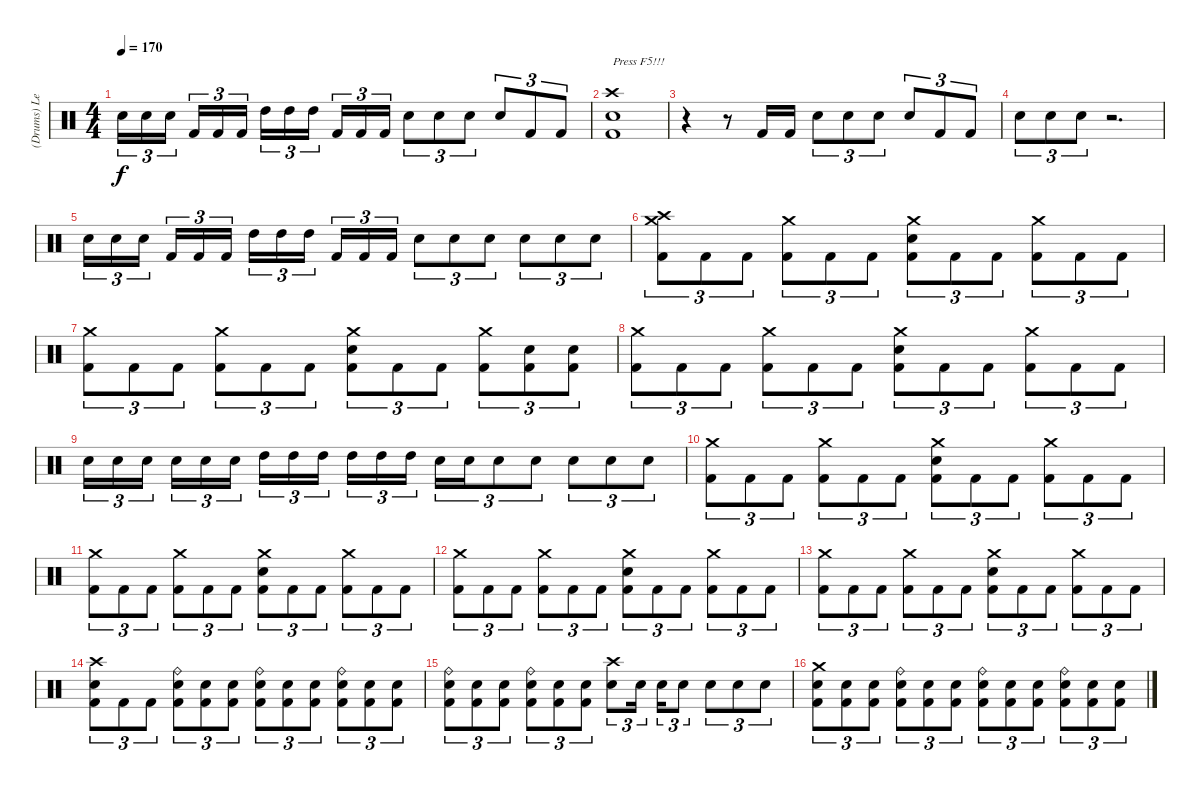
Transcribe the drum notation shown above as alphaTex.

\track ("(Drums) Leche" "(Drums) Le") {instrument percussion}
\staff {score}
\articulation defaults
\ts (4 4)
\tempo 170
\clef neutral
\ks c "Electric Snare (hit)".16{tu (3 2) dy f} "Electric Snare (hit)".16{tu (3 2)} "Electric Snare (hit)".16{tu (3 2) beam splitsecondary} "Kick (hit) 2".16{tu (3 2)} "Kick (hit) 2".16{tu (3 2)} "Kick (hit) 2".16{tu (3 2)} "High Tom (hit)".16{tu (3 2)} "High Tom (hit)".16{tu (3 2)} "High Tom (hit)".16{tu (3 2) beam splitsecondary} "Kick (hit) 2".16{tu (3 2)} "Kick (hit) 2".16{tu (3 2)} "Kick (hit) 2".16{tu (3 2)} "Electric Snare (hit)".8{tu (3 2)} "Electric Snare (hit)".8{tu (3 2)} "Electric Snare (hit)".8{tu (3 2)} "Electric Snare (hit)".8{tu (3 2)} "Kick (hit) 2".8{tu (3 2)} "Kick (hit) 2".8{tu (3 2)}
|
("Crash high (hit)" "Electric Snare (hit)" "Kick (hit) 2").1{txt "Press F5!!!"} |
r.4 r.8 "Kick (hit) 2".16 "Kick (hit) 2".16 "Electric Snare (hit)".8{tu (3 2)} "Electric Snare (hit)".8{tu (3 2)} "Electric Snare (hit)".8{tu (3 2)} "Electric Snare (hit)".8{tu (3 2)} "Kick (hit) 2".8{tu (3 2)} "Kick (hit) 2".8{tu (3 2)} |
"Electric Snare (hit)".8{tu (3 2)} "Electric Snare (hit)".8{tu (3 2)} "Electric Snare (hit)".8{tu (3 2)} r.2{d} |
"Electric Snare (hit)".16{tu (3 2)} "Electric Snare (hit)".16{tu (3 2)} "Electric Snare (hit)".16{tu (3 2) beam splitsecondary} "Kick (hit) 2".16{tu (3 2)} "Kick (hit) 2".16{tu (3 2)} "Kick (hit) 2".16{tu (3 2)} "High Tom (hit)".16{tu (3 2)} "High Tom (hit)".16{tu (3 2)} "High Tom (hit)".16{tu (3 2) beam splitsecondary} "Kick (hit) 2".16{tu (3 2)} "Kick (hit) 2".16{tu (3 2)} "Kick (hit) 2".16{tu (3 2)} "Electric Snare (hit)".8{tu (3 2)} "Electric Snare (hit)".8{tu (3 2)} "Electric Snare (hit)".8{tu (3 2)} "Electric Snare (hit)".8{tu (3 2)} "Electric Snare (hit)".8{tu (3 2)} "Electric Snare (hit)".8{tu (3 2)} |
("Crash high (hit)" "Crash medium (hit)" "Kick (hit) 2").8{tu (3 2)} "Kick (hit) 2".8{tu (3 2)} "Kick (hit) 2".8{tu (3 2)} ("Crash medium (hit)" "Kick (hit) 2").8{tu (3 2)} "Kick (hit) 2".8{tu (3 2)} "Kick (hit) 2".8{tu (3 2)} ("Crash medium (hit)" "Electric Snare (hit)" "Kick (hit) 2").8{tu (3 2)} "Kick (hit) 2".8{tu (3 2)} "Kick (hit) 2".8{tu (3 2)} ("Crash medium (hit)" "Kick (hit) 2").8{tu (3 2)} "Kick (hit) 2".8{tu (3 2)} "Kick (hit) 2".8{tu (3 2)} |
("Crash medium (hit)" "Kick (hit) 2").8{tu (3 2)} "Kick (hit) 2".8{tu (3 2)} "Kick (hit) 2".8{tu (3 2)} ("Crash medium (hit)" "Kick (hit) 2").8{tu (3 2)} "Kick (hit) 2".8{tu (3 2)} "Kick (hit) 2".8{tu (3 2)} ("Crash medium (hit)" "Electric Snare (hit)" "Kick (hit) 2").8{tu (3 2)} "Kick (hit) 2".8{tu (3 2)} "Kick (hit) 2".8{tu (3 2)} ("Crash medium (hit)" "Kick (hit) 2").8{tu (3 2)} ("Electric Snare (hit)" "Kick (hit) 2").8{tu (3 2)} ("Electric Snare (hit)" "Kick (hit) 2").8{tu (3 2)} |
("Crash medium (hit)" "Kick (hit) 2").8{tu (3 2)} "Kick (hit) 2".8{tu (3 2)} "Kick (hit) 2".8{tu (3 2)} ("Crash medium (hit)" "Kick (hit) 2").8{tu (3 2)} "Kick (hit) 2".8{tu (3 2)} "Kick (hit) 2".8{tu (3 2)} ("Crash medium (hit)" "Electric Snare (hit)" "Kick (hit) 2").8{tu (3 2)} "Kick (hit) 2".8{tu (3 2)} "Kick (hit) 2".8{tu (3 2)} ("Crash medium (hit)" "Kick (hit) 2").8{tu (3 2)} "Kick (hit) 2".8{tu (3 2)} "Kick (hit) 2".8{tu (3 2)} |
"Electric Snare (hit)".16{tu (3 2)} "Electric Snare (hit)".16{tu (3 2)} "Electric Snare (hit)".16{tu (3 2) beam splitsecondary} "Electric Snare (hit)".16{tu (3 2)} "Electric Snare (hit)".16{tu (3 2)} "Electric Snare (hit)".16{tu (3 2)} "High Tom (hit)".16{tu (3 2)} "High Tom (hit)".16{tu (3 2)} "High Tom (hit)".16{tu (3 2) beam splitsecondary} "High Tom (hit)".16{tu (3 2)} "High Tom (hit)".16{tu (3 2)} "High Tom (hit)".16{tu (3 2)} "Electric Snare (hit)".16{tu (3 2)} "Electric Snare (hit)".16{tu (3 2)} "Electric Snare (hit)".8{tu (3 2)} "Electric Snare (hit)".8{tu (3 2)} "Electric Snare (hit)".8{tu (3 2)} "Electric Snare (hit)".8{tu (3 2)} "Electric Snare (hit)".8{tu (3 2)} |
("Crash medium (hit)" "Kick (hit) 2").8{tu (3 2)} "Kick (hit) 2".8{tu (3 2)} "Kick (hit) 2".8{tu (3 2)} ("Crash medium (hit)" "Kick (hit) 2").8{tu (3 2)} "Kick (hit) 2".8{tu (3 2)} "Kick (hit) 2".8{tu (3 2)} ("Crash medium (hit)" "Electric Snare (hit)" "Kick (hit) 2").8{tu (3 2)} "Kick (hit) 2".8{tu (3 2)} "Kick (hit) 2".8{tu (3 2)} ("Crash medium (hit)" "Kick (hit) 2").8{tu (3 2)} "Kick (hit) 2".8{tu (3 2)} "Kick (hit) 2".8{tu (3 2)} |
("Crash medium (hit)" "Kick (hit) 2").8{tu (3 2)} "Kick (hit) 2".8{tu (3 2)} "Kick (hit) 2".8{tu (3 2)} ("Crash medium (hit)" "Kick (hit) 2").8{tu (3 2)} "Kick (hit) 2".8{tu (3 2)} "Kick (hit) 2".8{tu (3 2)} ("Crash medium (hit)" "Electric Snare (hit)" "Kick (hit) 2").8{tu (3 2)} "Kick (hit) 2".8{tu (3 2)} "Kick (hit) 2".8{tu (3 2)} ("Crash medium (hit)" "Kick (hit) 2").8{tu (3 2)} "Kick (hit) 2".8{tu (3 2)} "Kick (hit) 2".8{tu (3 2)} |
("Crash medium (hit)" "Kick (hit) 2").8{tu (3 2)} "Kick (hit) 2".8{tu (3 2)} "Kick (hit) 2".8{tu (3 2)} ("Crash medium (hit)" "Kick (hit) 2").8{tu (3 2)} "Kick (hit) 2".8{tu (3 2)} "Kick (hit) 2".8{tu (3 2)} ("Crash medium (hit)" "Electric Snare (hit)" "Kick (hit) 2").8{tu (3 2)} "Kick (hit) 2".8{tu (3 2)} "Kick (hit) 2".8{tu (3 2)} ("Crash medium (hit)" "Kick (hit) 2").8{tu (3 2)} "Kick (hit) 2".8{tu (3 2)} "Kick (hit) 2".8{tu (3 2)} |
("Crash medium (hit)" "Kick (hit) 2").8{tu (3 2)} "Kick (hit) 2".8{tu (3 2)} "Kick (hit) 2".8{tu (3 2)} ("Crash medium (hit)" "Kick (hit) 2").8{tu (3 2)} "Kick (hit) 2".8{tu (3 2)} "Kick (hit) 2".8{tu (3 2)} ("Crash medium (hit)" "Electric Snare (hit)" "Kick (hit) 2").8{tu (3 2)} "Kick (hit) 2".8{tu (3 2)} "Kick (hit) 2".8{tu (3 2)} ("Crash medium (hit)" "Kick (hit) 2").8{tu (3 2)} "Kick (hit) 2".8{tu (3 2)} "Kick (hit) 2".8{tu (3 2)} |
("Crash high (hit)" "Electric Snare (hit)" "Kick (hit) 2").8{tu (3 2)} "Kick (hit) 2".8{tu (3 2)} "Kick (hit) 2".8{tu (3 2)} ("Ride (bell)" "Electric Snare (hit)" "Kick (hit) 2").8{tu (3 2)} ("Electric Snare (hit)" "Kick (hit) 2").8{tu (3 2)} ("Electric Snare (hit)" "Kick (hit) 2").8{tu (3 2)} ("Ride (bell)" "Electric Snare (hit)" "Kick (hit) 2").8{tu (3 2)} ("Electric Snare (hit)" "Kick (hit) 2").8{tu (3 2)} ("Electric Snare (hit)" "Kick (hit) 2").8{tu (3 2)} ("Ride (bell)" "Electric Snare (hit)" "Kick (hit) 2").8{tu (3 2)} ("Electric Snare (hit)" "Kick (hit) 2").8{tu (3 2)} ("Electric Snare (hit)" "Kick (hit) 2").8{tu (3 2)} |
("Ride (bell)" "Electric Snare (hit)" "Kick (hit) 2").8{tu (3 2)} ("Electric Snare (hit)" "Kick (hit) 2").8{tu (3 2)} ("Electric Snare (hit)" "Kick (hit) 2").8{tu (3 2)} ("Ride (bell)" "Electric Snare (hit)" "Kick (hit) 2").8{tu (3 2)} ("Electric Snare (hit)" "Kick (hit) 2").8{tu (3 2)} ("Electric Snare (hit)" "Kick (hit) 2").8{tu (3 2)} ("Crash high (hit)" "Electric Snare (hit)").8{tu (3 2)} "Electric Snare (hit)".16{tu (3 2) beam splitsecondary} "Electric Snare (hit)".16{tu (3 2)} "Electric Snare (hit)".8{tu (3 2)} "Electric Snare (hit)".8{tu (3 2)} "Electric Snare (hit)".8{tu (3 2)} "Electric Snare (hit)".8{tu (3 2)} |
("Crash medium (hit)" "Electric Snare (hit)" "Kick (hit) 2").8{tu (3 2)} ("Electric Snare (hit)" "Kick (hit) 2").8{tu (3 2)} ("Electric Snare (hit)" "Kick (hit) 2").8{tu (3 2)} ("Ride (bell)" "Electric Snare (hit)" "Kick (hit) 2").8{tu (3 2)} ("Electric Snare (hit)" "Kick (hit) 2").8{tu (3 2)} ("Electric Snare (hit)" "Kick (hit) 2").8{tu (3 2)} ("Ride (bell)" "Electric Snare (hit)" "Kick (hit) 2").8{tu (3 2)} ("Electric Snare (hit)" "Kick (hit) 2").8{tu (3 2)} ("Electric Snare (hit)" "Kick (hit) 2").8{tu (3 2)} ("Ride (bell)" "Electric Snare (hit)" "Kick (hit) 2").8{tu (3 2)} ("Electric Snare (hit)" "Kick (hit) 2").8{tu (3 2)} ("Electric Snare (hit)" "Kick (hit) 2").8{tu (3 2)}
